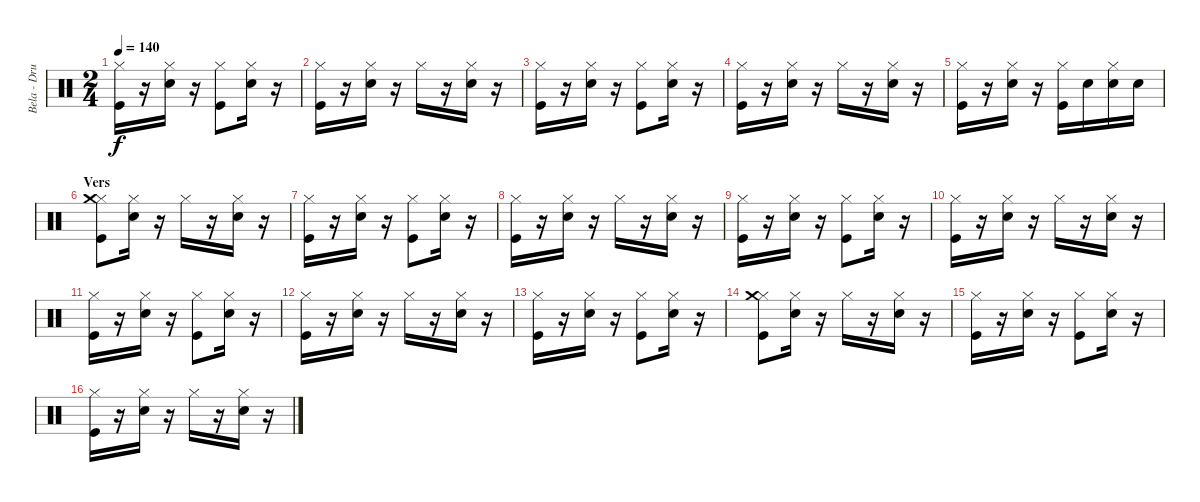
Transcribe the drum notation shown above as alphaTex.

\track ("Bela - Drums" "Bela - Dru") {instrument percussion}
\staff {score}
\articulation defaults
\ts (2 4)
\tempo 140
\clef neutral
\ks c
("Kick (hit)" "Hi-Hat (closed)").16{dy f} r.16 ("Electric Snare (hit)" "Hi-Hat (closed)").16 r.16 ("Hi-Hat (closed)" "Kick (hit)").8 ("Electric Snare (hit)" "Hi-Hat (closed)").16 r.16 |
("Kick (hit)" "Hi-Hat (closed)").16 r.16 ("Electric Snare (hit)" "Hi-Hat (closed)").16 r.16 "Hi-Hat (closed)".16 r.16 ("Electric Snare (hit)" "Hi-Hat (closed)").16 r.16 |
("Kick (hit)" "Hi-Hat (closed)").16 r.16 ("Electric Snare (hit)" "Hi-Hat (closed)").16 r.16 ("Hi-Hat (closed)" "Kick (hit)").8 ("Electric Snare (hit)" "Hi-Hat (closed)").16 r.16 |
("Kick (hit)" "Hi-Hat (closed)").16 r.16 ("Electric Snare (hit)" "Hi-Hat (closed)").16 r.16 "Hi-Hat (closed)".16 r.16 ("Electric Snare (hit)" "Hi-Hat (closed)").16 r.16 |
("Kick (hit)" "Hi-Hat (closed)").16 r.16 ("Electric Snare (hit)" "Hi-Hat (closed)").16 r.16 ("Hi-Hat (closed)" "Kick (hit)").16 "Electric Snare (hit)".16 ("Electric Snare (hit)" "Hi-Hat (closed)").16 "Electric Snare (hit)".16 |
\section ("" "Vers")
("Kick (hit)" "Hi-Hat (closed)" "Crash medium (hit)").8 ("Electric Snare (hit)" "Hi-Hat (closed)").16 r.16 "Hi-Hat (closed)".16 r.16 ("Electric Snare (hit)" "Hi-Hat (closed)").16 r.16 |
("Kick (hit)" "Hi-Hat (closed)").16 r.16 ("Electric Snare (hit)" "Hi-Hat (closed)").16 r.16 ("Hi-Hat (closed)" "Kick (hit)").8 ("Electric Snare (hit)" "Hi-Hat (closed)").16 r.16 |
("Kick (hit)" "Hi-Hat (closed)").16 r.16 ("Electric Snare (hit)" "Hi-Hat (closed)").16 r.16 "Hi-Hat (closed)".16 r.16 ("Electric Snare (hit)" "Hi-Hat (closed)").16 r.16 |
("Kick (hit)" "Hi-Hat (closed)").16 r.16 ("Electric Snare (hit)" "Hi-Hat (closed)").16 r.16 ("Hi-Hat (closed)" "Kick (hit)").8 ("Electric Snare (hit)" "Hi-Hat (closed)").16 r.16 |
("Kick (hit)" "Hi-Hat (closed)").16 r.16 ("Electric Snare (hit)" "Hi-Hat (closed)").16 r.16 "Hi-Hat (closed)".16 r.16 ("Electric Snare (hit)" "Hi-Hat (closed)").16 r.16 |
("Kick (hit)" "Hi-Hat (closed)").16 r.16 ("Electric Snare (hit)" "Hi-Hat (closed)").16 r.16 ("Hi-Hat (closed)" "Kick (hit)").8 ("Electric Snare (hit)" "Hi-Hat (closed)").16 r.16 |
("Kick (hit)" "Hi-Hat (closed)").16 r.16 ("Electric Snare (hit)" "Hi-Hat (closed)").16 r.16 "Hi-Hat (closed)".16 r.16 ("Electric Snare (hit)" "Hi-Hat (closed)").16 r.16 |
("Kick (hit)" "Hi-Hat (closed)").16 r.16 ("Electric Snare (hit)" "Hi-Hat (closed)").16 r.16 ("Hi-Hat (closed)" "Kick (hit)").8 ("Electric Snare (hit)" "Hi-Hat (closed)").16 r.16 |
("Kick (hit)" "Hi-Hat (closed)" "Crash medium (hit)").8 ("Electric Snare (hit)" "Hi-Hat (closed)").16 r.16 "Hi-Hat (closed)".16 r.16 ("Electric Snare (hit)" "Hi-Hat (closed)").16 r.16 |
("Kick (hit)" "Hi-Hat (closed)").16 r.16 ("Electric Snare (hit)" "Hi-Hat (closed)").16 r.16 ("Hi-Hat (closed)" "Kick (hit)").8 ("Electric Snare (hit)" "Hi-Hat (closed)").16 r.16 |
("Kick (hit)" "Hi-Hat (closed)").16 r.16 ("Electric Snare (hit)" "Hi-Hat (closed)").16 r.16 "Hi-Hat (closed)".16 r.16 ("Electric Snare (hit)" "Hi-Hat (closed)").16 r.16
